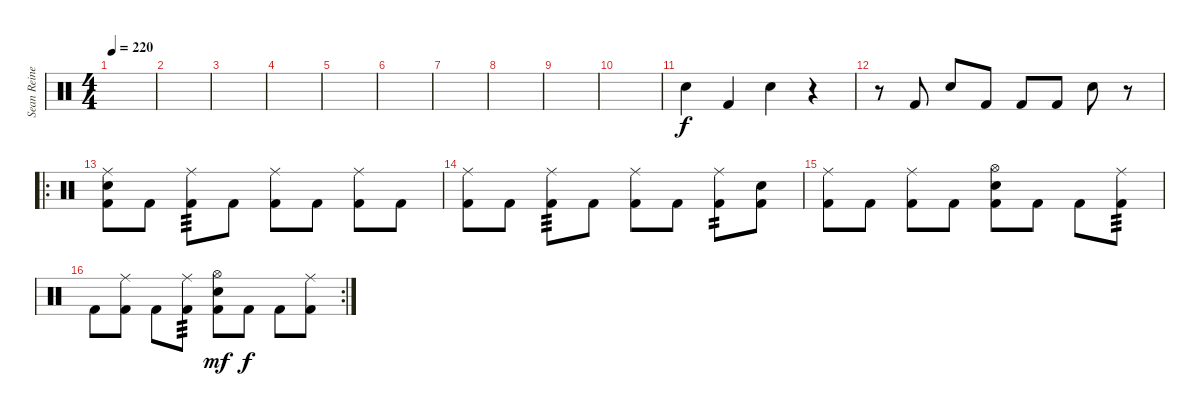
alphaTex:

\track ("Sean Reinert" "Sean Reine") {instrument percussion}
\staff {score}
\articulation defaults
\ts (4 4)
\tempo 220
\clef neutral
\ks c
|
|
|
|
|
|
|
|
|
|
"Electric Snare (hit)".4 "Kick (hit) 2".4 "Electric Snare (hit)".4 r.4 |
r.8 "Kick (hit) 2".8 "Electric Snare (hit)".8 "Kick (hit) 2".8 "Kick (hit) 2".8 "Kick (hit) 2".8 "Electric Snare (hit)".8 r.8 |
\ro
("Kick (hit) 2" "Ride (middle)" "Electric Snare (hit)").8 "Kick (hit) 2".8 ("Kick (hit) 2" "Ride (middle)").8{tp 3} "Kick (hit) 2".8 ("Kick (hit) 2" "Ride (middle)").8 "Kick (hit) 2".8 ("Kick (hit) 2" "Ride (middle)").8 "Kick (hit) 2".8 |
("Kick (hit) 2" "Ride (middle)").8 "Kick (hit) 2".8 ("Kick (hit) 2" "Ride (middle)").8{tp 3} "Kick (hit) 2".8 ("Kick (hit) 2" "Ride (middle)").8 "Kick (hit) 2".8 ("Kick (hit) 2" "Ride (middle)").8{tp 2} ("Kick (hit) 2" "Electric Snare (hit)").8 |
("Kick (hit) 2" "Ride (middle)").8 "Kick (hit) 2".8 ("Kick (hit) 2" "Ride (middle)").8 "Kick (hit) 2".8 ("Kick (hit) 2" "Electric Snare (hit)" "Hi-Hat (open)").8 "Kick (hit) 2".8 "Kick (hit) 2".8 ("Kick (hit) 2" "Ride (middle)").8{tp 3} |
\rc 2 "Kick (hit) 2".8
("Kick (hit) 2" "Ride (middle)").8 "Kick (hit) 2".8 ("Kick (hit) 2" "Ride (middle)").8{tp 3} ("Kick (hit) 2" "Electric Snare (hit)" "Hi-Hat (open)").8{dy mf} "Kick (hit) 2".8{dy f} "Kick (hit) 2".8 ("Kick (hit) 2" "Ride (middle)").8
